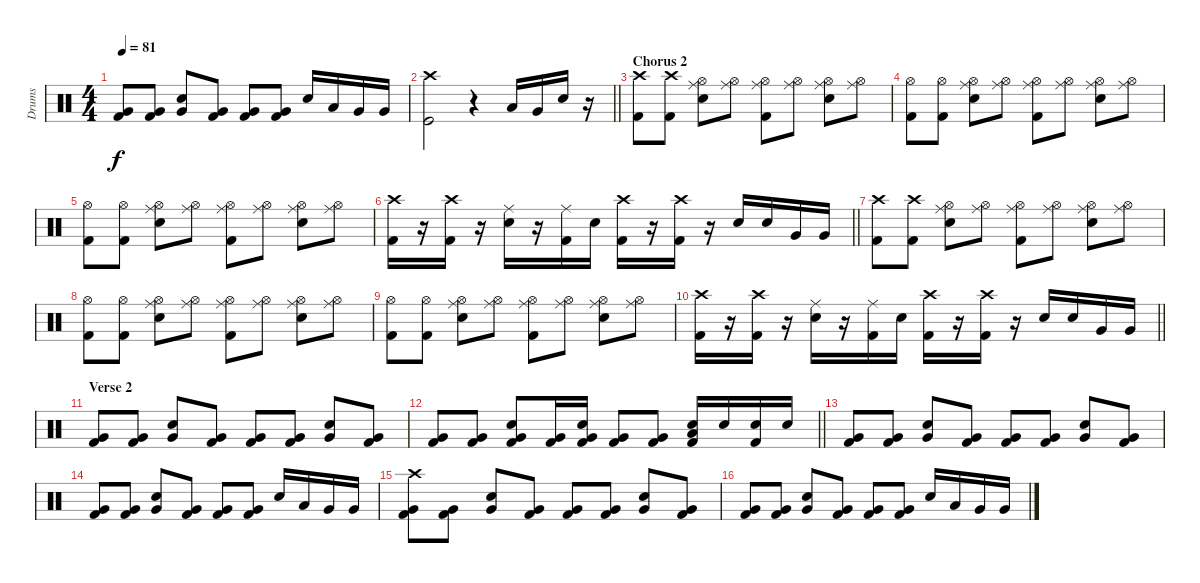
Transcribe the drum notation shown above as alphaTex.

\track ("Drums" "Drums") {instrument percussion}
\staff {score}
\articulation defaults
\ts (4 4)
\tempo 81
\clef neutral
\ks c
("Kick (hit) 2" "Very Low Tom (hit)").8{dy f} ("Very Low Tom (hit)" "Kick (hit) 2").8 ("Snare (hit) 2" "Very Low Tom (hit)").8 ("Very Low Tom (hit)" "Kick (hit) 2").8 ("Very Low Tom (hit)" "Kick (hit) 2").8 ("Very Low Tom (hit)" "Kick (hit) 2").8 "Snare (hit) 2".16 "Low Tom (hit)".16 "Very Low Tom (hit)".16 "Very Low Tom (hit)".16 |
\barLineRight lightlight
("Crash high (hit)" "Kick (hit)").2 r.4 "Low Tom (hit)".16{volume 9} "Very Low Tom (hit)".16 "Snare (hit) 2".16 r.16 |
\section ("" "Chorus 2")
("Crash high (hit)" "Kick (hit) 2").8 ("Crash high (hit)" "Kick (hit) 2").8 ("Ride (middle)" "Snare (hit) 2" "Hi-Hat (open)").8 ("Ride (middle)" "Hi-Hat (open)").8 ("Ride (middle)" "Kick (hit) 2" "Hi-Hat (open)").8 ("Ride (middle)" "Hi-Hat (open)").8 ("Ride (middle)" "Snare (hit) 2" "Hi-Hat (open)").8 ("Ride (middle)" "Hi-Hat (open)").8 |
("Kick (hit) 2" "Hi-Hat (open)").8 ("Kick (hit) 2" "Hi-Hat (open)").8 ("Ride (middle)" "Snare (hit) 2" "Hi-Hat (open)").8 ("Ride (middle)" "Hi-Hat (open)").8 ("Ride (middle)" "Kick (hit) 2" "Hi-Hat (open)").8 ("Ride (middle)" "Hi-Hat (open)").8 ("Ride (middle)" "Snare (hit) 2" "Hi-Hat (open)").8 ("Ride (middle)" "Hi-Hat (open)").8 |
("Kick (hit) 2" "Hi-Hat (open)").8 ("Kick (hit) 2" "Hi-Hat (open)").8 ("Ride (middle)" "Snare (hit) 2" "Hi-Hat (open)").8 ("Ride (middle)" "Hi-Hat (open)").8 ("Ride (middle)" "Kick (hit) 2" "Hi-Hat (open)").8 ("Ride (middle)" "Hi-Hat (open)").8 ("Ride (middle)" "Snare (hit) 2" "Hi-Hat (open)").8 ("Ride (middle)" "Hi-Hat (open)").8 |
\barLineRight lightlight
("Crash high (hit)" "Kick (hit) 2").16 r.16 ("Crash high (hit)" "Kick (hit) 2").16 r.16 ("Ride (middle)" "Snare (hit) 2").16 r.16 ("Ride (middle)" "Kick (hit) 2").16 "Snare (hit) 2".16 ("Crash high (hit)" "Kick (hit) 2").16 r.16 ("Crash high (hit)" "Kick (hit) 2").16 r.16 "Snare (hit) 2".16 "Snare (hit) 2".16 "Very Low Tom (hit)".16 "Very Low Tom (hit)".16 |
("Crash high (hit)" "Kick (hit) 2").8 ("Crash high (hit)" "Kick (hit) 2").8 ("Ride (middle)" "Snare (hit) 2" "Hi-Hat (open)").8 ("Ride (middle)" "Hi-Hat (open)").8 ("Ride (middle)" "Kick (hit) 2" "Hi-Hat (open)").8 ("Ride (middle)" "Hi-Hat (open)").8 ("Ride (middle)" "Snare (hit) 2" "Hi-Hat (open)").8 ("Ride (middle)" "Hi-Hat (open)").8 |
("Kick (hit) 2" "Hi-Hat (open)").8 ("Kick (hit) 2" "Hi-Hat (open)").8 ("Ride (middle)" "Snare (hit) 2" "Hi-Hat (open)").8 ("Ride (middle)" "Hi-Hat (open)").8 ("Ride (middle)" "Kick (hit) 2" "Hi-Hat (open)").8 ("Ride (middle)" "Hi-Hat (open)").8 ("Ride (middle)" "Snare (hit) 2" "Hi-Hat (open)").8 ("Ride (middle)" "Hi-Hat (open)").8 |
("Kick (hit) 2" "Hi-Hat (open)").8 ("Kick (hit) 2" "Hi-Hat (open)").8 ("Ride (middle)" "Snare (hit) 2" "Hi-Hat (open)").8 ("Ride (middle)" "Hi-Hat (open)").8 ("Ride (middle)" "Kick (hit) 2" "Hi-Hat (open)").8 ("Ride (middle)" "Hi-Hat (open)").8 ("Ride (middle)" "Snare (hit) 2" "Hi-Hat (open)").8 ("Ride (middle)" "Hi-Hat (open)").8 |
\barLineRight lightlight
("Crash high (hit)" "Kick (hit) 2").16 r.16 ("Crash high (hit)" "Kick (hit) 2").16 r.16 ("Ride (middle)" "Snare (hit) 2").16 r.16 ("Ride (middle)" "Kick (hit) 2").16 "Snare (hit) 2".16 ("Crash high (hit)" "Kick (hit) 2").16 r.16 ("Crash high (hit)" "Kick (hit) 2").16 r.16 "Snare (hit) 2".16 "Snare (hit) 2".16 "Very Low Tom (hit)".16 "Very Low Tom (hit)".16 |
\section ("" "Verse 2")
("Kick (hit) 2" "Very Low Tom (hit)").8{volume 4} ("Very Low Tom (hit)" "Kick (hit) 2").8 ("Snare (hit) 2" "Very Low Tom (hit)").8 ("Very Low Tom (hit)" "Kick (hit) 2").8 ("Very Low Tom (hit)" "Kick (hit) 2").8 ("Very Low Tom (hit)" "Kick (hit) 2").8 ("Very Low Tom (hit)" "Snare (hit) 2").8 ("Kick (hit) 2" "Very Low Tom (hit)").8 |
\barLineRight lightlight
("Very Low Tom (hit)" "Kick (hit) 2").8 ("Very Low Tom (hit)" "Kick (hit) 2").8 ("Very Low Tom (hit)" "Kick (hit) 2" "Snare (hit) 2").8 ("Very Low Tom (hit)" "Kick (hit) 2").16 ("Very Low Tom (hit)" "Kick (hit) 2" "Snare (hit) 2").16 ("Very Low Tom (hit)" "Kick (hit) 2").8 ("Very Low Tom (hit)" "Kick (hit) 2").8 ("Low Floor Tom (hit)" "Kick (hit) 2" "Snare (hit) 2").16 "Snare (hit) 2".16 ("Kick (hit) 2" "Snare (hit) 2").16 "Snare (hit) 2".16 |
("Kick (hit) 2" "Very Low Tom (hit)").8 ("Very Low Tom (hit)" "Kick (hit) 2").8 ("Snare (hit) 2" "Very Low Tom (hit)").8 ("Very Low Tom (hit)" "Kick (hit) 2").8 ("Very Low Tom (hit)" "Kick (hit) 2").8 ("Very Low Tom (hit)" "Kick (hit) 2").8 ("Very Low Tom (hit)" "Snare (hit) 2").8 ("Kick (hit) 2" "Very Low Tom (hit)").8 |
("Kick (hit) 2" "Very Low Tom (hit)").8 ("Very Low Tom (hit)" "Kick (hit) 2").8 ("Snare (hit) 2" "Very Low Tom (hit)").8 ("Very Low Tom (hit)" "Kick (hit) 2").8 ("Very Low Tom (hit)" "Kick (hit) 2").8 ("Very Low Tom (hit)" "Kick (hit) 2").8 "Snare (hit) 2".16 "Low Tom (hit)".16 "Very Low Tom (hit)".16 "Very Low Tom (hit)".16 |
("Kick (hit) 2" "Very Low Tom (hit)" "Crash high (hit)").8 ("Very Low Tom (hit)" "Kick (hit) 2").8 ("Snare (hit) 2" "Very Low Tom (hit)").8 ("Very Low Tom (hit)" "Kick (hit) 2").8 ("Very Low Tom (hit)" "Kick (hit) 2").8 ("Very Low Tom (hit)" "Kick (hit) 2").8 ("Very Low Tom (hit)" "Snare (hit) 2").8 ("Kick (hit) 2" "Very Low Tom (hit)").8 |
("Kick (hit) 2" "Very Low Tom (hit)").8 ("Very Low Tom (hit)" "Kick (hit) 2").8 ("Snare (hit) 2" "Very Low Tom (hit)").8 ("Very Low Tom (hit)" "Kick (hit) 2").8 ("Very Low Tom (hit)" "Kick (hit) 2").8 ("Very Low Tom (hit)" "Kick (hit) 2").8 "Snare (hit) 2".16 "Low Tom (hit)".16 "Very Low Tom (hit)".16 "Very Low Tom (hit)".16
